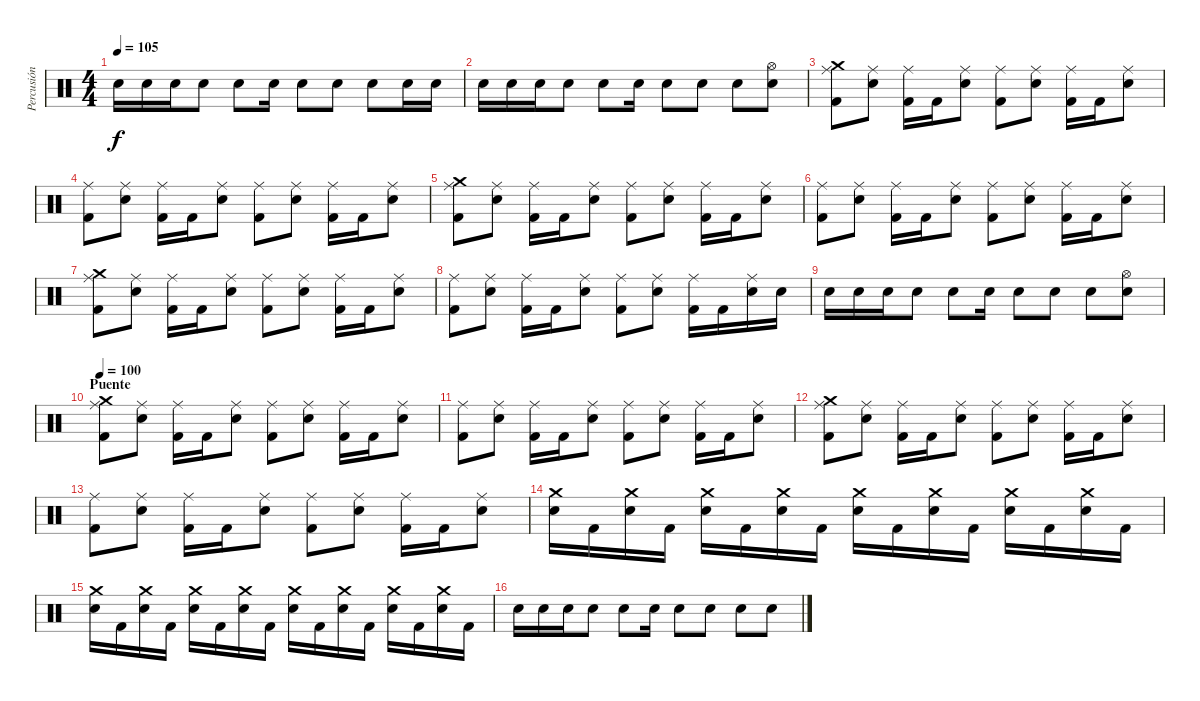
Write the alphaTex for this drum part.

\track ("Percusión" "Percusión") {instrument percussion}
\staff {score}
\articulation defaults
\ts (4 4)
\tempo 105
\clef neutral
\ks c "Snare (hit) 2".16{dy f} "Snare (hit) 2".16 "Snare (hit) 2".16 "Snare (hit) 2".8 "Snare (hit) 2".8 "Snare (hit) 2".16 "Snare (hit) 2".8 "Snare (hit) 2".8 "Snare (hit) 2".8 "Snare (hit) 2".16 "Snare (hit) 2".16
|
"Snare (hit) 2".16 "Snare (hit) 2".16 "Snare (hit) 2".16 "Snare (hit) 2".8 "Snare (hit) 2".8 "Snare (hit) 2".16 "Snare (hit) 2".8 "Snare (hit) 2".8 "Snare (hit) 2".8 ("Snare (hit) 2" "Hi-Hat (open)").8 |
("Kick (hit) 2" "Ride (middle)" "Crash medium (hit)").8 ("Snare (hit) 2" "Ride (middle)").8 ("Kick (hit) 2" "Ride (middle)").16 "Kick (hit) 2".16 ("Snare (hit) 2" "Ride (middle)").8 ("Kick (hit) 2" "Ride (middle)").8 ("Snare (hit) 2" "Ride (middle)").8 ("Kick (hit) 2" "Ride (middle)").16 "Kick (hit) 2".16 ("Snare (hit) 2" "Ride (middle)").8 |
("Kick (hit) 2" "Ride (middle)").8 ("Snare (hit) 2" "Ride (middle)").8 ("Kick (hit) 2" "Ride (middle)").16 "Kick (hit) 2".16 ("Snare (hit) 2" "Ride (middle)").8 ("Kick (hit) 2" "Ride (middle)").8 ("Snare (hit) 2" "Ride (middle)").8 ("Kick (hit) 2" "Ride (middle)").16 "Kick (hit) 2".16 ("Snare (hit) 2" "Ride (middle)").8 |
("Kick (hit) 2" "Ride (middle)" "Crash medium (hit)").8 ("Snare (hit) 2" "Ride (middle)").8 ("Kick (hit) 2" "Ride (middle)").16 "Kick (hit) 2".16 ("Snare (hit) 2" "Ride (middle)").8 ("Kick (hit) 2" "Ride (middle)").8 ("Snare (hit) 2" "Ride (middle)").8 ("Kick (hit) 2" "Ride (middle)").16 "Kick (hit) 2".16 ("Snare (hit) 2" "Ride (middle)").8 |
("Kick (hit) 2" "Ride (middle)").8 ("Snare (hit) 2" "Ride (middle)").8 ("Kick (hit) 2" "Ride (middle)").16 "Kick (hit) 2".16 ("Snare (hit) 2" "Ride (middle)").8 ("Kick (hit) 2" "Ride (middle)").8 ("Snare (hit) 2" "Ride (middle)").8 ("Kick (hit) 2" "Ride (middle)").16 "Kick (hit) 2".16 ("Snare (hit) 2" "Ride (middle)").8 |
("Kick (hit) 2" "Ride (middle)" "Crash medium (hit)").8 ("Snare (hit) 2" "Ride (middle)").8 ("Kick (hit) 2" "Ride (middle)").16 "Kick (hit) 2".16 ("Snare (hit) 2" "Ride (middle)").8 ("Kick (hit) 2" "Ride (middle)").8 ("Snare (hit) 2" "Ride (middle)").8 ("Kick (hit) 2" "Ride (middle)").16 "Kick (hit) 2".16 ("Snare (hit) 2" "Ride (middle)").8 |
("Kick (hit) 2" "Ride (middle)").8 ("Snare (hit) 2" "Ride (middle)").8 ("Kick (hit) 2" "Ride (middle)").16 "Kick (hit) 2".16 ("Snare (hit) 2" "Ride (middle)").8 ("Kick (hit) 2" "Ride (middle)").8 ("Snare (hit) 2" "Ride (middle)").8 ("Kick (hit) 2" "Ride (middle)").16 "Kick (hit) 2".16 ("Snare (hit) 2" "Ride (middle)").16 "Snare (hit) 2".16 |
"Snare (hit) 2".16 "Snare (hit) 2".16 "Snare (hit) 2".16 "Snare (hit) 2".8 "Snare (hit) 2".8 "Snare (hit) 2".16 "Snare (hit) 2".8 "Snare (hit) 2".8 "Snare (hit) 2".8 ("Snare (hit) 2" "Hi-Hat (open)").8 |
\section ("" "Puente")
\tempo 100
("Kick (hit) 2" "Ride (middle)" "Crash medium (hit)").8 ("Snare (hit) 2" "Ride (middle)").8 ("Kick (hit) 2" "Ride (middle)").16 "Kick (hit) 2".16 ("Snare (hit) 2" "Ride (middle)").8 ("Kick (hit) 2" "Ride (middle)").8 ("Snare (hit) 2" "Ride (middle)").8 ("Kick (hit) 2" "Ride (middle)").16 "Kick (hit) 2".16 ("Snare (hit) 2" "Ride (middle)").8 |
("Kick (hit) 2" "Ride (middle)").8 ("Snare (hit) 2" "Ride (middle)").8 ("Kick (hit) 2" "Ride (middle)").16 "Kick (hit) 2".16 ("Snare (hit) 2" "Ride (middle)").8 ("Kick (hit) 2" "Ride (middle)").8 ("Snare (hit) 2" "Ride (middle)").8 ("Kick (hit) 2" "Ride (middle)").16 "Kick (hit) 2".16 ("Snare (hit) 2" "Ride (middle)").8 |
("Kick (hit) 2" "Ride (middle)" "Crash medium (hit)").8 ("Snare (hit) 2" "Ride (middle)").8 ("Kick (hit) 2" "Ride (middle)").16 "Kick (hit) 2".16 ("Snare (hit) 2" "Ride (middle)").8 ("Kick (hit) 2" "Ride (middle)").8 ("Snare (hit) 2" "Ride (middle)").8 ("Kick (hit) 2" "Ride (middle)").16 "Kick (hit) 2".16 ("Snare (hit) 2" "Ride (middle)").8 |
("Kick (hit) 2" "Ride (middle)").8 ("Snare (hit) 2" "Ride (middle)").8 ("Kick (hit) 2" "Ride (middle)").16 "Kick (hit) 2".16 ("Snare (hit) 2" "Ride (middle)").8 ("Kick (hit) 2" "Ride (middle)").8 ("Snare (hit) 2" "Ride (middle)").8 ("Kick (hit) 2" "Ride (middle)").16 "Kick (hit) 2".16 ("Snare (hit) 2" "Ride (middle)").8 |
("Crash medium (hit)" "Snare (hit) 2").16 "Kick (hit) 2".16 ("Crash medium (hit)" "Snare (hit) 2").16 "Kick (hit) 2".16 ("Crash medium (hit)" "Snare (hit) 2").16 "Kick (hit) 2".16 ("Crash medium (hit)" "Snare (hit) 2").16 "Kick (hit) 2".16 ("Crash medium (hit)" "Snare (hit) 2").16 "Kick (hit) 2".16 ("Crash medium (hit)" "Snare (hit) 2").16 "Kick (hit) 2".16 ("Crash medium (hit)" "Snare (hit) 2").16 "Kick (hit) 2".16 ("Crash medium (hit)" "Snare (hit) 2").16 "Kick (hit) 2".16 |
("Crash medium (hit)" "Snare (hit) 2").16 "Kick (hit) 2".16 ("Crash medium (hit)" "Snare (hit) 2").16 "Kick (hit) 2".16 ("Crash medium (hit)" "Snare (hit) 2").16 "Kick (hit) 2".16 ("Crash medium (hit)" "Snare (hit) 2").16 "Kick (hit) 2".16 ("Crash medium (hit)" "Snare (hit) 2").16 "Kick (hit) 2".16 ("Crash medium (hit)" "Snare (hit) 2").16 "Kick (hit) 2".16 ("Crash medium (hit)" "Snare (hit) 2").16 "Kick (hit) 2".16 ("Crash medium (hit)" "Snare (hit) 2").16 "Kick (hit) 2".16 |
"Snare (hit) 2".16 "Snare (hit) 2".16 "Snare (hit) 2".16 "Snare (hit) 2".8 "Snare (hit) 2".8 "Snare (hit) 2".16 "Snare (hit) 2".8 "Snare (hit) 2".8 "Snare (hit) 2".8 "Snare (hit) 2".8
